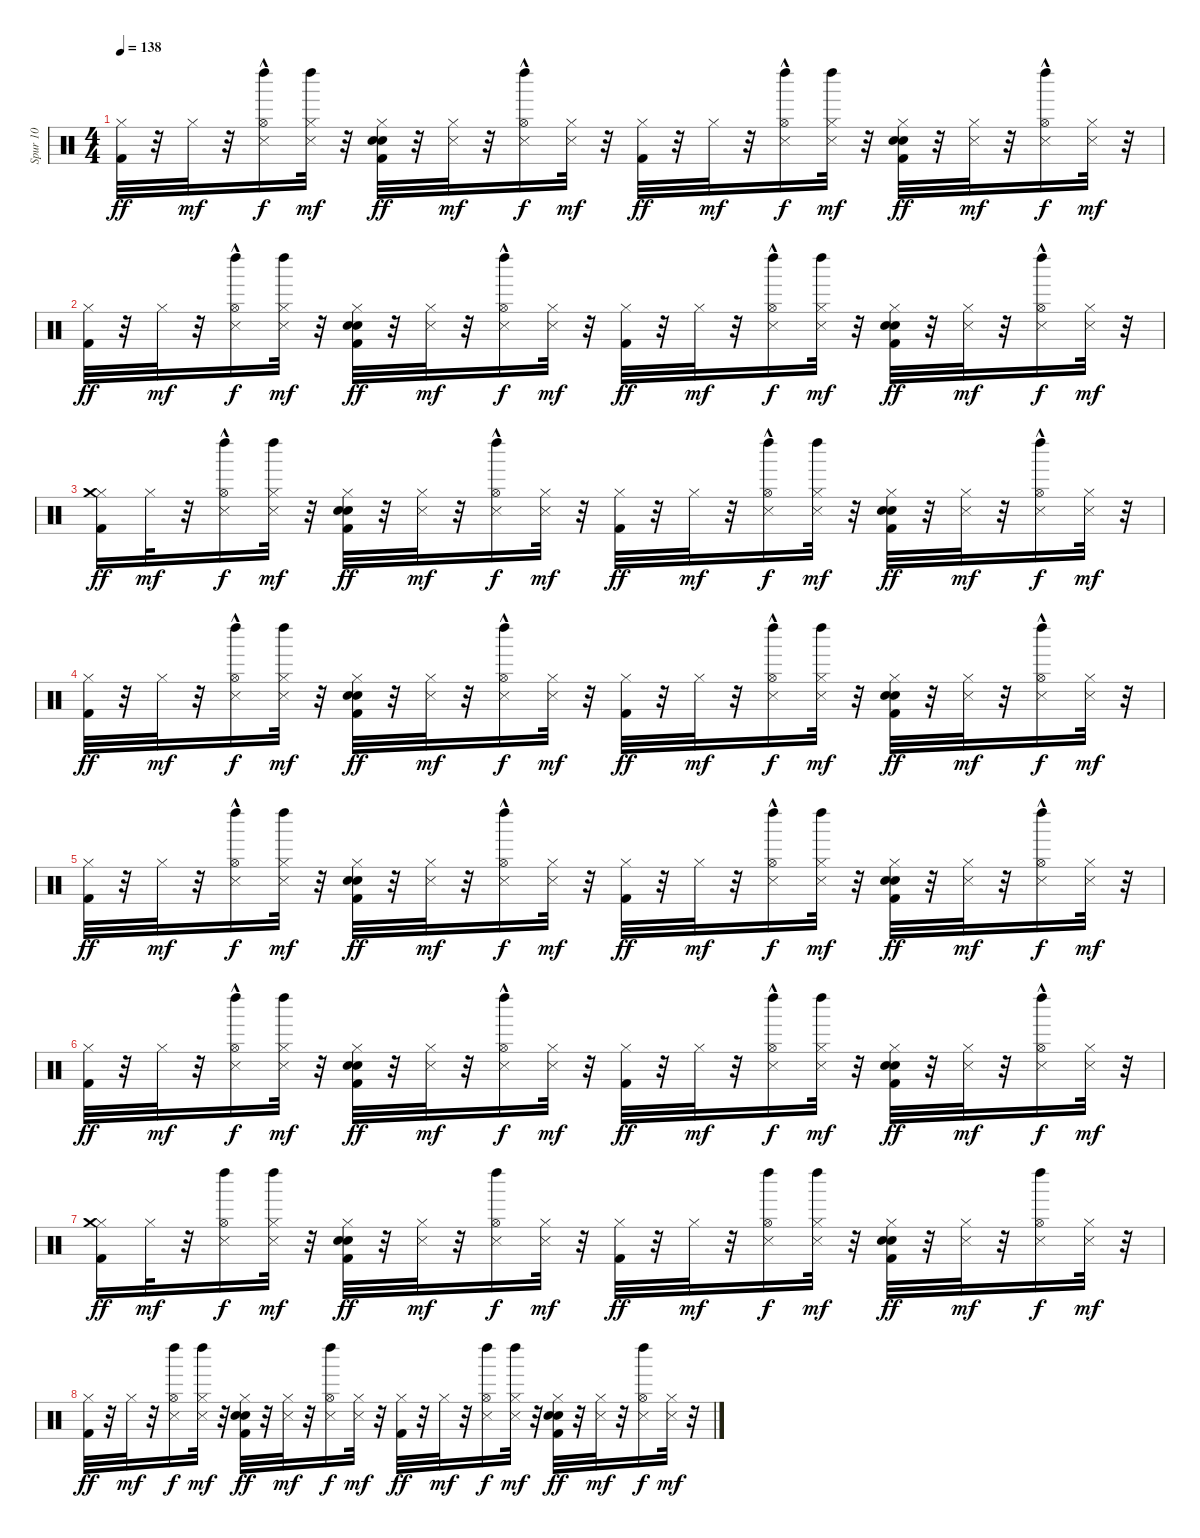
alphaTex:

\track ("Spur 10" "Spur 10") {instrument percussion}
\staff {score}
\articulation defaults
\ts (4 4)
\tempo 138
\clef neutral
\ks c
("Hi-Hat (closed)" "Kick (hit) 2").32{dy ff} r.32 "Hi-Hat (closed)".32{dy mf} r.32 ("Snare (side stick) 3" "Hi-Hat (open)"{hac} "Left Maraca (hit)").16{dy f} ("Hi-Hat (closed)" "Snare (side stick) 3" "Left Maraca (hit)").32{dy mf} r.32 ("Hand Clap (hit)" "Hi-Hat (closed)" "Kick (hit) 2" "Electric Snare (hit)").32{dy ff} r.32 ("Hi-Hat (closed)" "Snare (side stick) 3").32{dy mf} r.32 ("Snare (side stick) 3" "Hi-Hat (open)"{hac} "Left Maraca (hit)").16{dy f} ("Hi-Hat (closed)" "Snare (side stick) 3").32{dy mf} r.32 ("Hi-Hat (closed)" "Kick (hit) 2").32{dy ff} r.32 "Hi-Hat (closed)".32{dy mf} r.32 ("Snare (side stick) 3" "Hi-Hat (open)"{hac} "Left Maraca (hit)").16{dy f} ("Hi-Hat (closed)" "Snare (side stick) 3" "Left Maraca (hit)").32{dy mf} r.32 ("Hand Clap (hit)" "Hi-Hat (closed)" "Kick (hit) 2" "Electric Snare (hit)").32{dy ff} r.32 ("Hi-Hat (closed)" "Snare (side stick) 3").32{dy mf} r.32 ("Snare (side stick) 3" "Hi-Hat (open)"{hac} "Left Maraca (hit)").16{dy f} ("Hi-Hat (closed)" "Snare (side stick) 3").32{dy mf} r.32 |
("Hi-Hat (closed)" "Kick (hit) 2").32{dy ff} r.32 "Hi-Hat (closed)".32{dy mf} r.32 ("Snare (side stick) 3" "Hi-Hat (open)"{hac} "Left Maraca (hit)").16{dy f} ("Hi-Hat (closed)" "Snare (side stick) 3" "Left Maraca (hit)").32{dy mf} r.32 ("Hand Clap (hit)" "Hi-Hat (closed)" "Kick (hit) 2" "Electric Snare (hit)").32{dy ff} r.32 ("Hi-Hat (closed)" "Snare (side stick) 3").32{dy mf} r.32 ("Snare (side stick) 3" "Hi-Hat (open)"{hac} "Left Maraca (hit)").16{dy f} ("Hi-Hat (closed)" "Snare (side stick) 3").32{dy mf} r.32 ("Hi-Hat (closed)" "Kick (hit) 2").32{dy ff} r.32 "Hi-Hat (closed)".32{dy mf} r.32 ("Snare (side stick) 3" "Hi-Hat (open)"{hac} "Left Maraca (hit)").16{dy f} ("Hi-Hat (closed)" "Snare (side stick) 3" "Left Maraca (hit)").32{dy mf} r.32 ("Hand Clap (hit)" "Hi-Hat (closed)" "Kick (hit) 2" "Electric Snare (hit)").32{dy ff} r.32 ("Hi-Hat (closed)" "Snare (side stick) 3").32{dy mf} r.32 ("Snare (side stick) 3" "Hi-Hat (open)"{hac} "Left Maraca (hit)").16{dy f} ("Hi-Hat (closed)" "Snare (side stick) 3").32{dy mf} r.32 |
("Hi-Hat (closed)" "Crash medium (hit)" "Kick (hit) 2").16{dy ff} "Hi-Hat (closed)".32{dy mf} r.32 ("Snare (side stick) 3" "Hi-Hat (open)"{hac} "Left Maraca (hit)").16{dy f} ("Hi-Hat (closed)" "Snare (side stick) 3" "Left Maraca (hit)").32{dy mf} r.32 ("Hand Clap (hit)" "Hi-Hat (closed)" "Kick (hit) 2" "Electric Snare (hit)").32{dy ff} r.32 ("Hi-Hat (closed)" "Snare (side stick) 3").32{dy mf} r.32 ("Snare (side stick) 3" "Hi-Hat (open)"{hac} "Left Maraca (hit)").16{dy f} ("Hi-Hat (closed)" "Snare (side stick) 3").32{dy mf} r.32 ("Hi-Hat (closed)" "Kick (hit) 2").32{dy ff} r.32 "Hi-Hat (closed)".32{dy mf} r.32 ("Snare (side stick) 3" "Hi-Hat (open)"{hac} "Left Maraca (hit)").16{dy f} ("Hi-Hat (closed)" "Snare (side stick) 3" "Left Maraca (hit)").32{dy mf} r.32 ("Hand Clap (hit)" "Hi-Hat (closed)" "Kick (hit) 2" "Electric Snare (hit)").32{dy ff} r.32 ("Hi-Hat (closed)" "Snare (side stick) 3").32{dy mf} r.32 ("Snare (side stick) 3" "Hi-Hat (open)"{hac} "Left Maraca (hit)").16{dy f} ("Hi-Hat (closed)" "Snare (side stick) 3").32{dy mf} r.32 |
("Hi-Hat (closed)" "Kick (hit) 2").32{dy ff} r.32 "Hi-Hat (closed)".32{dy mf} r.32 ("Snare (side stick) 3" "Hi-Hat (open)"{hac} "Left Maraca (hit)").16{dy f} ("Hi-Hat (closed)" "Snare (side stick) 3" "Left Maraca (hit)").32{dy mf} r.32 ("Hand Clap (hit)" "Hi-Hat (closed)" "Kick (hit) 2" "Electric Snare (hit)").32{dy ff} r.32 ("Hi-Hat (closed)" "Snare (side stick) 3").32{dy mf} r.32 ("Snare (side stick) 3" "Hi-Hat (open)"{hac} "Left Maraca (hit)").16{dy f} ("Hi-Hat (closed)" "Snare (side stick) 3").32{dy mf} r.32 ("Hi-Hat (closed)" "Kick (hit) 2").32{dy ff} r.32 "Hi-Hat (closed)".32{dy mf} r.32 ("Snare (side stick) 3" "Hi-Hat (open)"{hac} "Left Maraca (hit)").16{dy f} ("Hi-Hat (closed)" "Snare (side stick) 3" "Left Maraca (hit)").32{dy mf} r.32 ("Hand Clap (hit)" "Hi-Hat (closed)" "Kick (hit) 2" "Electric Snare (hit)").32{dy ff} r.32 ("Hi-Hat (closed)" "Snare (side stick) 3").32{dy mf} r.32 ("Snare (side stick) 3" "Hi-Hat (open)"{hac} "Left Maraca (hit)").16{dy f} ("Hi-Hat (closed)" "Snare (side stick) 3").32{dy mf} r.32 |
("Hi-Hat (closed)" "Kick (hit) 2").32{dy ff} r.32 "Hi-Hat (closed)".32{dy mf} r.32 ("Snare (side stick) 3" "Hi-Hat (open)"{hac} "Left Maraca (hit)").16{dy f} ("Hi-Hat (closed)" "Snare (side stick) 3" "Left Maraca (hit)").32{dy mf} r.32 ("Hand Clap (hit)" "Hi-Hat (closed)" "Kick (hit) 2" "Electric Snare (hit)").32{dy ff} r.32 ("Hi-Hat (closed)" "Snare (side stick) 3").32{dy mf} r.32 ("Snare (side stick) 3" "Hi-Hat (open)"{hac} "Left Maraca (hit)").16{dy f} ("Hi-Hat (closed)" "Snare (side stick) 3").32{dy mf} r.32 ("Hi-Hat (closed)" "Kick (hit) 2").32{dy ff} r.32 "Hi-Hat (closed)".32{dy mf} r.32 ("Snare (side stick) 3" "Hi-Hat (open)"{hac} "Left Maraca (hit)").16{dy f} ("Hi-Hat (closed)" "Snare (side stick) 3" "Left Maraca (hit)").32{dy mf} r.32 ("Hand Clap (hit)" "Hi-Hat (closed)" "Kick (hit) 2" "Electric Snare (hit)").32{dy ff} r.32 ("Hi-Hat (closed)" "Snare (side stick) 3").32{dy mf} r.32 ("Snare (side stick) 3" "Hi-Hat (open)"{hac} "Left Maraca (hit)").16{dy f} ("Hi-Hat (closed)" "Snare (side stick) 3").32{dy mf} r.32 |
("Hi-Hat (closed)" "Kick (hit) 2").32{dy ff} r.32 "Hi-Hat (closed)".32{dy mf} r.32 ("Snare (side stick) 3" "Hi-Hat (open)"{hac} "Left Maraca (hit)").16{dy f} ("Hi-Hat (closed)" "Snare (side stick) 3" "Left Maraca (hit)").32{dy mf} r.32 ("Hand Clap (hit)" "Hi-Hat (closed)" "Kick (hit) 2" "Electric Snare (hit)").32{dy ff} r.32 ("Hi-Hat (closed)" "Snare (side stick) 3").32{dy mf} r.32 ("Snare (side stick) 3" "Hi-Hat (open)"{hac} "Left Maraca (hit)").16{dy f} ("Hi-Hat (closed)" "Snare (side stick) 3").32{dy mf} r.32 ("Hi-Hat (closed)" "Kick (hit) 2").32{dy ff} r.32 "Hi-Hat (closed)".32{dy mf} r.32 ("Snare (side stick) 3" "Hi-Hat (open)"{hac} "Left Maraca (hit)").16{dy f} ("Hi-Hat (closed)" "Snare (side stick) 3" "Left Maraca (hit)").32{dy mf} r.32 ("Hand Clap (hit)" "Hi-Hat (closed)" "Kick (hit) 2" "Electric Snare (hit)").32{dy ff} r.32 ("Hi-Hat (closed)" "Snare (side stick) 3").32{dy mf} r.32 ("Snare (side stick) 3" "Hi-Hat (open)"{hac} "Left Maraca (hit)").16{dy f} ("Hi-Hat (closed)" "Snare (side stick) 3").32{dy mf} r.32 |
("Hi-Hat (closed)" "Crash medium (hit)" "Kick (hit) 2").16{dy ff} "Hi-Hat (closed)".32{dy mf} r.32 ("Snare (side stick) 3" "Hi-Hat (open)" "Left Maraca (hit)").16{dy f} ("Hi-Hat (closed)" "Snare (side stick) 3" "Left Maraca (hit)").32{dy mf} r.32 ("Hand Clap (hit)" "Hi-Hat (closed)" "Kick (hit) 2" "Electric Snare (hit)").32{dy ff} r.32 ("Hi-Hat (closed)" "Snare (side stick) 3").32{dy mf} r.32 ("Snare (side stick) 3" "Hi-Hat (open)" "Left Maraca (hit)").16{dy f} ("Hi-Hat (closed)" "Snare (side stick) 3").32{dy mf} r.32 ("Hi-Hat (closed)" "Kick (hit) 2").32{dy ff} r.32 "Hi-Hat (closed)".32{dy mf} r.32 ("Snare (side stick) 3" "Hi-Hat (open)" "Left Maraca (hit)").16{dy f} ("Hi-Hat (closed)" "Snare (side stick) 3" "Left Maraca (hit)").32{dy mf} r.32 ("Hand Clap (hit)" "Hi-Hat (closed)" "Kick (hit) 2" "Electric Snare (hit)").32{dy ff} r.32 ("Hi-Hat (closed)" "Snare (side stick) 3").32{dy mf} r.32 ("Snare (side stick) 3" "Hi-Hat (open)" "Left Maraca (hit)").16{dy f} ("Hi-Hat (closed)" "Snare (side stick) 3").32{dy mf} r.32 |
("Hi-Hat (closed)" "Kick (hit) 2").32{dy ff} r.32 "Hi-Hat (closed)".32{dy mf} r.32 ("Snare (side stick) 3" "Hi-Hat (open)" "Left Maraca (hit)").16{dy f} ("Hi-Hat (closed)" "Snare (side stick) 3" "Left Maraca (hit)").32{dy mf} r.32 ("Hand Clap (hit)" "Hi-Hat (closed)" "Kick (hit) 2" "Electric Snare (hit)").32{dy ff} r.32 ("Hi-Hat (closed)" "Snare (side stick) 3").32{dy mf} r.32 ("Snare (side stick) 3" "Hi-Hat (open)" "Left Maraca (hit)").16{dy f} ("Hi-Hat (closed)" "Snare (side stick) 3").32{dy mf} r.32 ("Hi-Hat (closed)" "Kick (hit) 2").32{dy ff} r.32 "Hi-Hat (closed)".32{dy mf} r.32 ("Snare (side stick) 3" "Hi-Hat (open)" "Left Maraca (hit)").16{dy f} ("Hi-Hat (closed)" "Snare (side stick) 3" "Left Maraca (hit)").32{dy mf} r.32 ("Hand Clap (hit)" "Hi-Hat (closed)" "Kick (hit) 2" "Electric Snare (hit)").32{dy ff} r.32 ("Hi-Hat (closed)" "Snare (side stick) 3").32{dy mf} r.32 ("Snare (side stick) 3" "Hi-Hat (open)" "Left Maraca (hit)").16{dy f} ("Hi-Hat (closed)" "Snare (side stick) 3").32{dy mf} r.32
